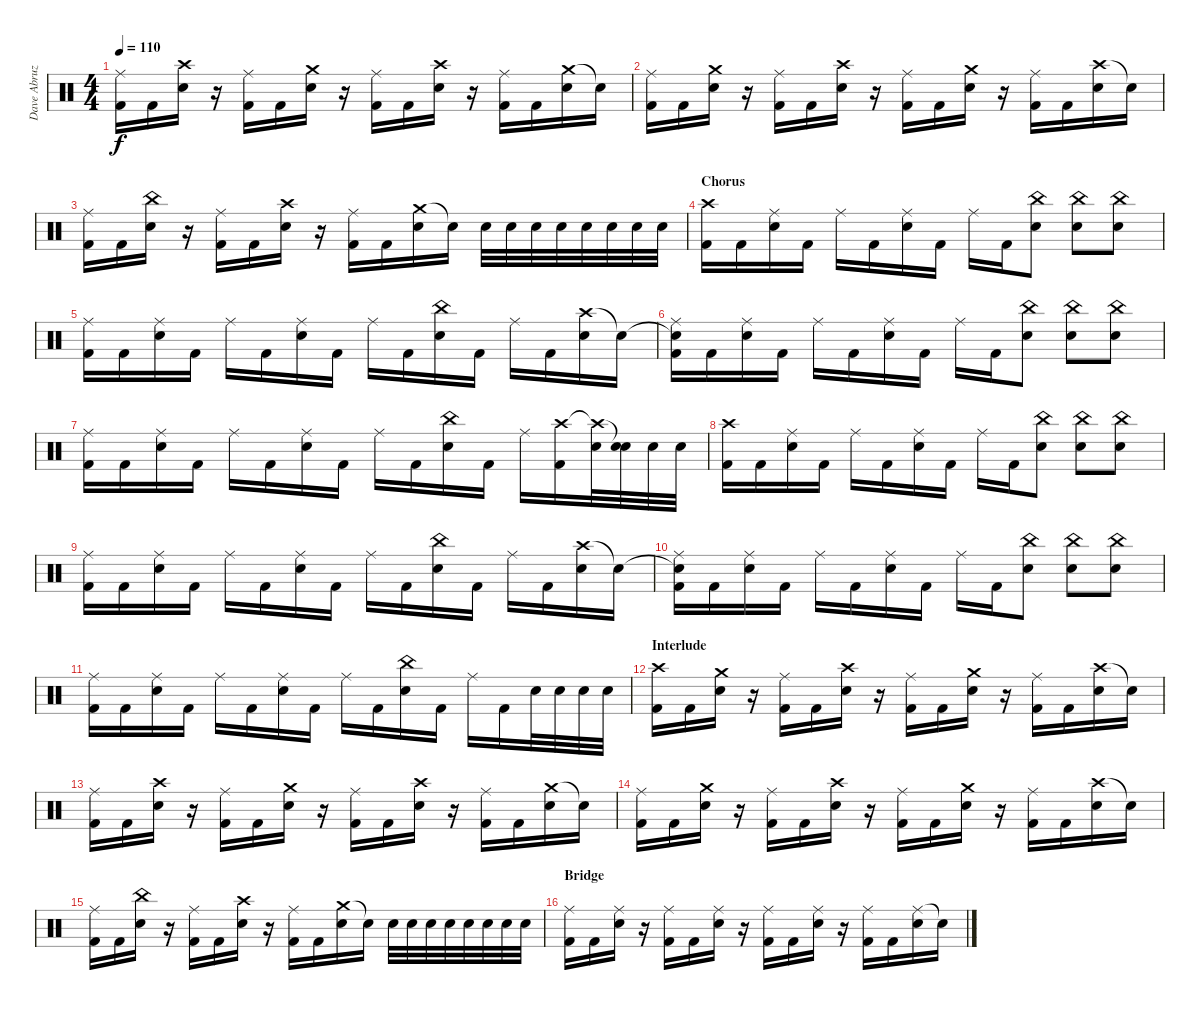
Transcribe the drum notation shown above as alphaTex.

\track ("Dave Abruzzese" "Dave Abruz") {instrument percussion}
\staff {score}
\articulation defaults
\ts (4 4)
\tempo 110
\clef neutral
\ks c
("Ride (middle)" "Kick (hit) 2").16{dy f} "Kick (hit) 2".16 ("Crash high (hit)" "Electric Snare (hit)").16 r.16 ("Ride (middle)" "Kick (hit) 2").16 "Kick (hit) 2".16 ("Crash medium (hit)" "Electric Snare (hit)").16 r.16 ("Ride (middle)" "Kick (hit) 2").16 "Kick (hit) 2".16 ("Crash high (hit)" "Electric Snare (hit)").16 r.16 ("Ride (middle)" "Kick (hit) 2").16 "Kick (hit) 2".16 ("Crash medium (hit)" "Electric Snare (hit)").16 "Snare (hit)"{t}.16 |
("Ride (middle)" "Kick (hit) 2").16 "Kick (hit) 2".16 ("Crash medium (hit)" "Electric Snare (hit)").16 r.16 ("Ride (middle)" "Kick (hit) 2").16 "Kick (hit) 2".16 ("Crash high (hit)" "Electric Snare (hit)").16 r.16 ("Ride (middle)" "Kick (hit) 2").16 "Kick (hit) 2".16 ("Crash medium (hit)" "Electric Snare (hit)").16 r.16 ("Ride (middle)" "Kick (hit) 2").16 "Kick (hit) 2".16 ("Crash high (hit)" "Electric Snare (hit)").16 "Snare (hit)"{t}.16 |
("Ride (middle)" "Kick (hit) 2").16 "Kick (hit) 2".16 ("China (hit)" "Electric Snare (hit)").16 r.16 ("Ride (middle)" "Kick (hit) 2").16 "Kick (hit) 2".16 ("Crash high (hit)" "Electric Snare (hit)").16 r.16 ("Ride (middle)" "Kick (hit) 2").16 "Kick (hit) 2".16 ("Crash medium (hit)" "Electric Snare (hit)").16 "Snare (hit)"{t}.16 "Electric Snare (hit)".32 "Electric Snare (hit)".32 "Electric Snare (hit)".32 "Electric Snare (hit)".32 "Electric Snare (hit)".32 "Electric Snare (hit)".32 "Electric Snare (hit)".32 "Electric Snare (hit)".32 |
\section ("" "Chorus")
("Crash high (hit)" "Kick (hit) 2").16 "Kick (hit) 2".16 ("Ride (middle)" "Electric Snare (hit)").16 "Kick (hit) 2".16 "Ride (middle)".16 "Kick (hit) 2".16 ("Ride (middle)" "Electric Snare (hit)").16 "Kick (hit) 2".16 "Ride (middle)".16 "Kick (hit) 2".16 ("China (hit)" "Electric Snare (hit)").8 ("China (hit)" "Electric Snare (hit)").8 ("China (hit)" "Electric Snare (hit)").8 |
("Ride (middle)" "Kick (hit) 2").16 "Kick (hit) 2".16 ("Ride (middle)" "Electric Snare (hit)").16 "Kick (hit) 2".16 "Ride (middle)".16 "Kick (hit) 2".16 ("Ride (middle)" "Electric Snare (hit)").16 "Kick (hit) 2".16 "Ride (middle)".16 "Kick (hit) 2".16 ("China (hit)" "Electric Snare (hit)").16 "Kick (hit) 2".16 "Ride (middle)".16 "Kick (hit) 2".16 ("Crash high (hit)" "Electric Snare (hit)").16 "Snare (hit)"{t}.16 |
("Snare (hit)"{t} "Ride (middle)" "Kick (hit) 2").16 "Kick (hit) 2".16 ("Ride (middle)" "Electric Snare (hit)").16 "Kick (hit) 2".16 "Ride (middle)".16 "Kick (hit) 2".16 ("Ride (middle)" "Electric Snare (hit)").16 "Kick (hit) 2".16 "Ride (middle)".16 "Kick (hit) 2".16 ("China (hit)" "Electric Snare (hit)").8 ("China (hit)" "Electric Snare (hit)").8 ("China (hit)" "Electric Snare (hit)").8 |
("Ride (middle)" "Kick (hit) 2").16 "Kick (hit) 2".16 ("Ride (middle)" "Electric Snare (hit)").16 "Kick (hit) 2".16 "Ride (middle)".16 "Kick (hit) 2".16 ("Ride (middle)" "Electric Snare (hit)").16 "Kick (hit) 2".16 "Ride (middle)".16 "Kick (hit) 2".16 ("China (hit)" "Electric Snare (hit)").16 "Kick (hit) 2".16 "Ride (middle)".16 ("Crash high (hit)" "Kick (hit) 2").16 ("Crash high (hit)"{t} "Electric Snare (hit)").32 ("Snare (hit)"{t} "Electric Snare (hit)").32 "Electric Snare (hit)".32 "Electric Snare (hit)".32 |
("Crash high (hit)" "Kick (hit) 2").16 "Kick (hit) 2".16 ("Ride (middle)" "Electric Snare (hit)").16 "Kick (hit) 2".16 "Ride (middle)".16 "Kick (hit) 2".16 ("Ride (middle)" "Electric Snare (hit)").16 "Kick (hit) 2".16 "Ride (middle)".16 "Kick (hit) 2".16 ("China (hit)" "Electric Snare (hit)").8 ("China (hit)" "Electric Snare (hit)").8 ("China (hit)" "Electric Snare (hit)").8 |
("Ride (middle)" "Kick (hit) 2").16 "Kick (hit) 2".16 ("Ride (middle)" "Electric Snare (hit)").16 "Kick (hit) 2".16 "Ride (middle)".16 "Kick (hit) 2".16 ("Ride (middle)" "Electric Snare (hit)").16 "Kick (hit) 2".16 "Ride (middle)".16 "Kick (hit) 2".16 ("China (hit)" "Electric Snare (hit)").16 "Kick (hit) 2".16 "Ride (middle)".16 "Kick (hit) 2".16 ("Crash high (hit)" "Electric Snare (hit)").16 "Snare (hit)"{t}.16 |
("Snare (hit)"{t} "Ride (middle)" "Kick (hit) 2").16 "Kick (hit) 2".16 ("Ride (middle)" "Electric Snare (hit)").16 "Kick (hit) 2".16 "Ride (middle)".16 "Kick (hit) 2".16 ("Ride (middle)" "Electric Snare (hit)").16 "Kick (hit) 2".16 "Ride (middle)".16 "Kick (hit) 2".16 ("China (hit)" "Electric Snare (hit)").8 ("China (hit)" "Electric Snare (hit)").8 ("China (hit)" "Electric Snare (hit)").8 |
("Ride (middle)" "Kick (hit) 2").16 "Kick (hit) 2".16 ("Ride (middle)" "Electric Snare (hit)").16 "Kick (hit) 2".16 "Ride (middle)".16 "Kick (hit) 2".16 ("Ride (middle)" "Electric Snare (hit)").16 "Kick (hit) 2".16 "Ride (middle)".16 "Kick (hit) 2".16 ("China (hit)" "Electric Snare (hit)").16 "Kick (hit) 2".16 "Ride (middle)".16 "Kick (hit) 2".16 "Electric Snare (hit)".32 "Electric Snare (hit)".32 "Electric Snare (hit)".32 "Electric Snare (hit)".32 |
\section ("" "Interlude")
("Crash high (hit)" "Kick (hit) 2").16 "Kick (hit) 2".16 ("Crash medium (hit)" "Electric Snare (hit)").16 r.16 ("Ride (middle)" "Kick (hit) 2").16 "Kick (hit) 2".16 ("Crash high (hit)" "Electric Snare (hit)").16 r.16 ("Ride (middle)" "Kick (hit) 2").16 "Kick (hit) 2".16 ("Crash medium (hit)" "Electric Snare (hit)").16 r.16 ("Ride (middle)" "Kick (hit) 2").16 "Kick (hit) 2".16 ("Crash high (hit)" "Electric Snare (hit)").16 "Snare (hit)"{t}.16 |
("Ride (middle)" "Kick (hit) 2").16 "Kick (hit) 2".16 ("Crash high (hit)" "Electric Snare (hit)").16 r.16 ("Ride (middle)" "Kick (hit) 2").16 "Kick (hit) 2".16 ("Crash medium (hit)" "Electric Snare (hit)").16 r.16 ("Ride (middle)" "Kick (hit) 2").16 "Kick (hit) 2".16 ("Crash high (hit)" "Electric Snare (hit)").16 r.16 ("Ride (middle)" "Kick (hit) 2").16 "Kick (hit) 2".16 ("Crash medium (hit)" "Electric Snare (hit)").16 "Snare (hit)"{t}.16 |
("Ride (middle)" "Kick (hit) 2").16 "Kick (hit) 2".16 ("Crash medium (hit)" "Electric Snare (hit)").16 r.16 ("Ride (middle)" "Kick (hit) 2").16 "Kick (hit) 2".16 ("Crash high (hit)" "Electric Snare (hit)").16 r.16 ("Ride (middle)" "Kick (hit) 2").16 "Kick (hit) 2".16 ("Crash medium (hit)" "Electric Snare (hit)").16 r.16 ("Ride (middle)" "Kick (hit) 2").16 "Kick (hit) 2".16 ("Crash high (hit)" "Electric Snare (hit)").16 "Snare (hit)"{t}.16 |
("Ride (middle)" "Kick (hit) 2").16 "Kick (hit) 2".16 ("China (hit)" "Electric Snare (hit)").16 r.16 ("Ride (middle)" "Kick (hit) 2").16 "Kick (hit) 2".16 ("Crash high (hit)" "Electric Snare (hit)").16 r.16 ("Ride (middle)" "Kick (hit) 2").16 "Kick (hit) 2".16 ("Crash medium (hit)" "Electric Snare (hit)").16 "Snare (hit)"{t}.16 "Electric Snare (hit)".32 "Electric Snare (hit)".32 "Electric Snare (hit)".32 "Electric Snare (hit)".32 "Electric Snare (hit)".32 "Electric Snare (hit)".32 "Electric Snare (hit)".32 "Electric Snare (hit)".32 |
\section ("" "Bridge")
("Ride (middle)" "Kick (hit) 2").16 "Kick (hit) 2".16 ("Ride (middle)" "Electric Snare (hit)").16 r.16 ("Ride (middle)" "Kick (hit) 2").16 "Kick (hit) 2".16 ("Ride (middle)" "Electric Snare (hit)").16 r.16 ("Ride (middle)" "Kick (hit) 2").16 "Kick (hit) 2".16 ("Ride (middle)" "Electric Snare (hit)").16 r.16 ("Ride (middle)" "Kick (hit) 2").16 "Kick (hit) 2".16 ("Ride (middle)" "Electric Snare (hit)").16 "Snare (hit)"{t}.16
